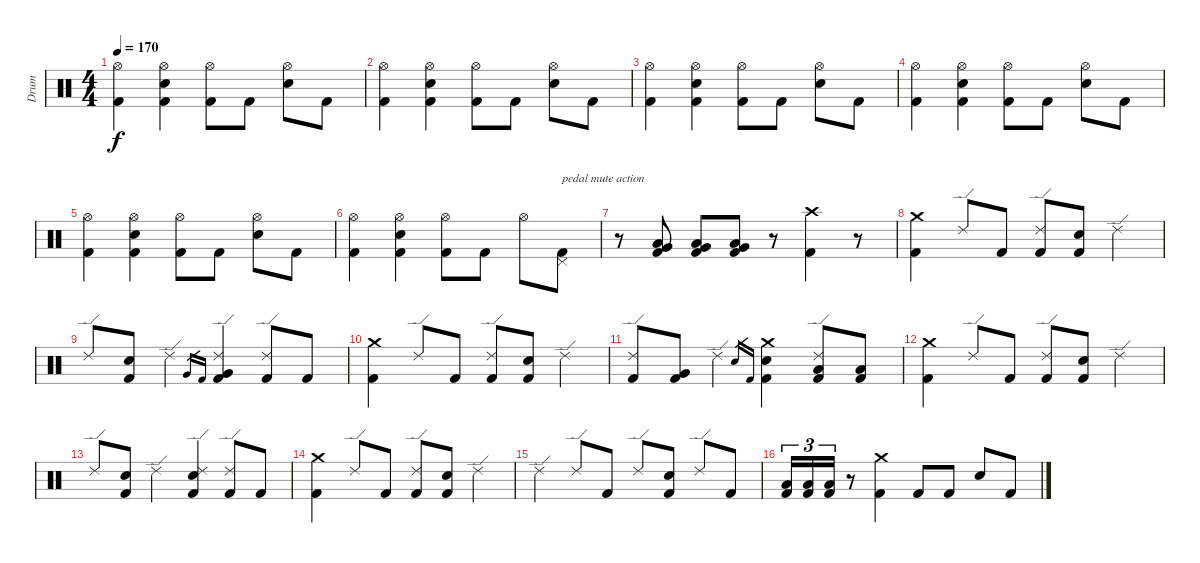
\track ("Drum" "Drum") {instrument percussion}
\staff {score}
\articulation defaults
\ts (4 4)
\tempo 170
\clef neutral
\ks c
("Hi-Hat (open)" "Kick (hit) 2").4{dy f} ("Hi-Hat (open)" "Electric Snare (hit)" "Kick (hit) 2").4 ("Hi-Hat (open)" "Kick (hit) 2").8 "Kick (hit) 2".8 ("Hi-Hat (open)" "Electric Snare (hit)").8 "Kick (hit) 2".8 |
("Hi-Hat (open)" "Kick (hit) 2").4 ("Hi-Hat (open)" "Electric Snare (hit)" "Kick (hit) 2").4 ("Hi-Hat (open)" "Kick (hit) 2").8 "Kick (hit) 2".8 ("Hi-Hat (open)" "Electric Snare (hit)").8 "Kick (hit) 2".8 |
("Hi-Hat (open)" "Kick (hit) 2").4 ("Hi-Hat (open)" "Electric Snare (hit)" "Kick (hit) 2").4 ("Hi-Hat (open)" "Kick (hit) 2").8 "Kick (hit) 2".8 ("Hi-Hat (open)" "Electric Snare (hit)").8 "Kick (hit) 2".8 |
("Hi-Hat (open)" "Kick (hit) 2").4 ("Hi-Hat (open)" "Electric Snare (hit)" "Kick (hit) 2").4 ("Hi-Hat (open)" "Kick (hit) 2").8 "Kick (hit) 2".8 ("Hi-Hat (open)" "Electric Snare (hit)").8 "Kick (hit) 2".8 |
("Hi-Hat (open)" "Kick (hit) 2").4 ("Hi-Hat (open)" "Electric Snare (hit)" "Kick (hit) 2").4 ("Hi-Hat (open)" "Kick (hit) 2").8 "Kick (hit) 2".8 ("Hi-Hat (open)" "Electric Snare (hit)").8 "Kick (hit) 2".8 |
("Hi-Hat (open)" "Kick (hit) 2").4 ("Hi-Hat (open)" "Electric Snare (hit)" "Kick (hit) 2").4 ("Hi-Hat (open)" "Kick (hit) 2").8 "Kick (hit) 2".8 "Hi-Hat (open)".8 ("Pedal Hi-Hat (hit)" "Kick (hit) 2").8{txt "pedal mute action"} |
r.8 ("Very Low Tom (hit)" "Low Floor Tom (hit)" "Kick (hit) 2").8 ("Very Low Tom (hit)" "Low Floor Tom (hit)" "Kick (hit) 2").8 ("Very Low Tom (hit)" "Low Floor Tom (hit)" "Kick (hit) 2").8 r.8 ("Crash high (hit)" "Kick (hit) 2").4 r.8 |
("Crash medium (hit)" "Kick (hit) 2").4 "Ride (edge) 2".8 "Kick (hit) 2".8 ("Ride (edge) 2" "Kick (hit) 2").8 ("Electric Snare (hit)" "Kick (hit) 2").8 "Ride (edge) 2".4 |
"Ride (edge) 2".8 ("Electric Snare (hit)" "Kick (hit) 2").8 "Ride (edge) 2".4 "Very Low Tom (hit)".16{gr} "Kick (hit) 2".16{gr} ("Ride (edge) 2" "Very Low Tom (hit)" "Kick (hit) 2").4 ("Ride (edge) 2" "Kick (hit) 2").8 "Kick (hit) 2".8 |
("Crash medium (hit)" "Kick (hit) 2").4 "Ride (edge) 2".8 "Kick (hit) 2".8 ("Ride (edge) 2" "Kick (hit) 2").8 ("Electric Snare (hit)" "Kick (hit) 2").8 "Ride (edge) 2".4 |
("Ride (edge) 2" "Kick (hit) 2").8 ("Very Low Tom (hit)" "Kick (hit) 2").8 "Ride (edge) 2".4 "Electric Snare (hit)".16{gr} "Kick (hit) 2".16{gr} ("Crash medium (hit)" "Electric Snare (hit)" "Kick (hit) 2").4 ("Ride (edge) 2" "Low Floor Tom (hit)" "Kick (hit) 2").8 ("Low Floor Tom (hit)" "Kick (hit) 2").8 |
("Crash medium (hit)" "Kick (hit) 2").4 "Ride (edge) 2".8 "Kick (hit) 2".8 ("Ride (edge) 2" "Kick (hit) 2").8 ("Electric Snare (hit)" "Kick (hit) 2").8 "Ride (edge) 2".4 |
"Ride (edge) 2".8 ("Electric Snare (hit)" "Kick (hit) 2").8 "Ride (edge) 2".4 ("Ride (edge) 2" "Electric Snare (hit)" "Kick (hit) 2").4 ("Ride (edge) 2" "Kick (hit) 2").8 "Kick (hit) 2".8 |
("Crash medium (hit)" "Kick (hit) 2").4 "Ride (edge) 2".8 "Kick (hit) 2".8 ("Ride (edge) 2" "Kick (hit) 2").8 ("Electric Snare (hit)" "Kick (hit) 2").8 "Ride (edge) 2".4 |
"Ride (edge) 2".4 "Ride (edge) 2".8 "Kick (hit) 2".8 "Ride (edge) 2".8 ("Electric Snare (hit)" "Kick (hit) 2").8 "Ride (edge) 2".8 "Kick (hit) 2".8 |
("Low Floor Tom (hit)" "Kick (hit) 2").16{tu (3 2)} ("Low Floor Tom (hit)" "Kick (hit) 2").16{tu (3 2)} ("Low Floor Tom (hit)" "Kick (hit) 2").16{tu (3 2)} r.8 ("Crash medium (hit)" "Kick (hit) 2").4 "Kick (hit) 2".8 "Kick (hit) 2".8 "Electric Snare (hit)".8 "Kick (hit) 2".8
